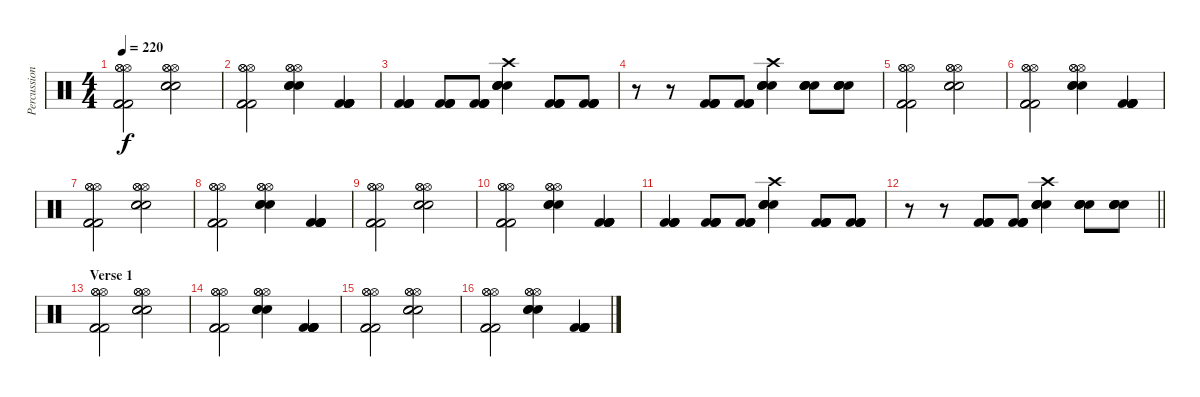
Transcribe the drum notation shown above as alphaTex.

\track ("Percussion" "Percussion") {instrument percussion}
\staff {score}
\articulation defaults
\ts (4 4)
\tempo 220
\clef neutral
\ks c
("Hi-Hat (open)" "Hi-Hat (open)" "Hi-Hat (open)" "Kick (hit) 2" "Kick (hit) 2" "Kick (hit) 2").2{dy f} ("Hi-Hat (open)" "Hi-Hat (open)" "Hi-Hat (open)" "Snare (hit) 2" "Snare (hit) 2" "Snare (hit) 2").2 |
("Hi-Hat (open)" "Hi-Hat (open)" "Hi-Hat (open)" "Kick (hit) 2" "Kick (hit) 2" "Kick (hit) 2").2 ("Hi-Hat (open)" "Hi-Hat (open)" "Hi-Hat (open)" "Snare (hit) 2" "Snare (hit) 2" "Snare (hit) 2").4 ("Kick (hit) 2" "Kick (hit) 2" "Kick (hit) 2" "Kick (hit) 2" "Kick (hit) 2").4 |
("Kick (hit) 2" "Kick (hit) 2" "Kick (hit) 2" "Kick (hit) 2").4 ("Kick (hit) 2" "Kick (hit) 2" "Kick (hit) 2" "Kick (hit) 2").8 ("Kick (hit) 2" "Kick (hit) 2" "Kick (hit) 2" "Kick (hit) 2").8 ("Crash high (hit)" "Snare (hit) 2" "Snare (hit) 2" "Snare (hit) 2" "Snare (hit) 2").4 ("Kick (hit) 2" "Kick (hit) 2" "Kick (hit) 2" "Kick (hit) 2").8 ("Kick (hit) 2" "Kick (hit) 2" "Kick (hit) 2" "Kick (hit) 2").8 |
r.8 r.8 ("Kick (hit) 2" "Kick (hit) 2" "Kick (hit) 2" "Kick (hit) 2").8 ("Kick (hit) 2" "Kick (hit) 2" "Kick (hit) 2" "Kick (hit) 2").8 ("Crash high (hit)" "Snare (hit) 2" "Snare (hit) 2" "Snare (hit) 2" "Snare (hit) 2").4 ("Snare (hit) 2" "Snare (hit) 2" "Snare (hit) 2" "Snare (hit) 2").8 ("Snare (hit) 2" "Snare (hit) 2" "Snare (hit) 2" "Snare (hit) 2").8 |
("Hi-Hat (open)" "Hi-Hat (open)" "Hi-Hat (open)" "Kick (hit) 2" "Kick (hit) 2" "Kick (hit) 2").2 ("Hi-Hat (open)" "Hi-Hat (open)" "Hi-Hat (open)" "Snare (hit) 2" "Snare (hit) 2" "Snare (hit) 2").2 |
("Hi-Hat (open)" "Hi-Hat (open)" "Hi-Hat (open)" "Kick (hit) 2" "Kick (hit) 2" "Kick (hit) 2").2 ("Hi-Hat (open)" "Hi-Hat (open)" "Hi-Hat (open)" "Snare (hit) 2" "Snare (hit) 2" "Snare (hit) 2").4 ("Kick (hit) 2" "Kick (hit) 2" "Kick (hit) 2" "Kick (hit) 2" "Kick (hit) 2").4 |
("Hi-Hat (open)" "Hi-Hat (open)" "Hi-Hat (open)" "Kick (hit) 2" "Kick (hit) 2" "Kick (hit) 2").2 ("Hi-Hat (open)" "Hi-Hat (open)" "Hi-Hat (open)" "Snare (hit) 2" "Snare (hit) 2" "Snare (hit) 2").2 |
("Hi-Hat (open)" "Hi-Hat (open)" "Hi-Hat (open)" "Kick (hit) 2" "Kick (hit) 2" "Kick (hit) 2").2 ("Hi-Hat (open)" "Hi-Hat (open)" "Hi-Hat (open)" "Snare (hit) 2" "Snare (hit) 2" "Snare (hit) 2").4 ("Kick (hit) 2" "Kick (hit) 2" "Kick (hit) 2" "Kick (hit) 2" "Kick (hit) 2").4 |
("Hi-Hat (open)" "Hi-Hat (open)" "Hi-Hat (open)" "Kick (hit) 2" "Kick (hit) 2" "Kick (hit) 2").2 ("Hi-Hat (open)" "Hi-Hat (open)" "Hi-Hat (open)" "Snare (hit) 2" "Snare (hit) 2" "Snare (hit) 2").2 |
("Hi-Hat (open)" "Hi-Hat (open)" "Hi-Hat (open)" "Kick (hit) 2" "Kick (hit) 2" "Kick (hit) 2").2 ("Hi-Hat (open)" "Hi-Hat (open)" "Hi-Hat (open)" "Snare (hit) 2" "Snare (hit) 2" "Snare (hit) 2").4 ("Kick (hit) 2" "Kick (hit) 2" "Kick (hit) 2" "Kick (hit) 2" "Kick (hit) 2").4 |
("Kick (hit) 2" "Kick (hit) 2" "Kick (hit) 2" "Kick (hit) 2").4 ("Kick (hit) 2" "Kick (hit) 2" "Kick (hit) 2" "Kick (hit) 2").8 ("Kick (hit) 2" "Kick (hit) 2" "Kick (hit) 2" "Kick (hit) 2").8 ("Crash high (hit)" "Snare (hit) 2" "Snare (hit) 2" "Snare (hit) 2" "Snare (hit) 2").4 ("Kick (hit) 2" "Kick (hit) 2" "Kick (hit) 2" "Kick (hit) 2").8 ("Kick (hit) 2" "Kick (hit) 2" "Kick (hit) 2" "Kick (hit) 2").8 |
\barLineRight lightlight
r.8 r.8 ("Kick (hit) 2" "Kick (hit) 2" "Kick (hit) 2" "Kick (hit) 2").8 ("Kick (hit) 2" "Kick (hit) 2" "Kick (hit) 2" "Kick (hit) 2").8 ("Crash high (hit)" "Snare (hit) 2" "Snare (hit) 2" "Snare (hit) 2" "Snare (hit) 2").4 ("Snare (hit) 2" "Snare (hit) 2" "Snare (hit) 2" "Snare (hit) 2").8 ("Snare (hit) 2" "Snare (hit) 2" "Snare (hit) 2" "Snare (hit) 2").8 |
\section ("" "Verse 1")
("Hi-Hat (open)" "Hi-Hat (open)" "Hi-Hat (open)" "Kick (hit) 2" "Kick (hit) 2" "Kick (hit) 2").2 ("Hi-Hat (open)" "Hi-Hat (open)" "Hi-Hat (open)" "Snare (hit) 2" "Snare (hit) 2" "Snare (hit) 2").2 |
("Hi-Hat (open)" "Hi-Hat (open)" "Hi-Hat (open)" "Kick (hit) 2" "Kick (hit) 2" "Kick (hit) 2").2 ("Hi-Hat (open)" "Hi-Hat (open)" "Hi-Hat (open)" "Snare (hit) 2" "Snare (hit) 2" "Snare (hit) 2").4 ("Kick (hit) 2" "Kick (hit) 2" "Kick (hit) 2" "Kick (hit) 2" "Kick (hit) 2").4 |
("Hi-Hat (open)" "Hi-Hat (open)" "Hi-Hat (open)" "Kick (hit) 2" "Kick (hit) 2" "Kick (hit) 2").2 ("Hi-Hat (open)" "Hi-Hat (open)" "Hi-Hat (open)" "Snare (hit) 2" "Snare (hit) 2" "Snare (hit) 2").2 |
("Hi-Hat (open)" "Hi-Hat (open)" "Hi-Hat (open)" "Kick (hit) 2" "Kick (hit) 2" "Kick (hit) 2").2 ("Hi-Hat (open)" "Hi-Hat (open)" "Hi-Hat (open)" "Snare (hit) 2" "Snare (hit) 2" "Snare (hit) 2").4 ("Kick (hit) 2" "Kick (hit) 2" "Kick (hit) 2" "Kick (hit) 2" "Kick (hit) 2").4
